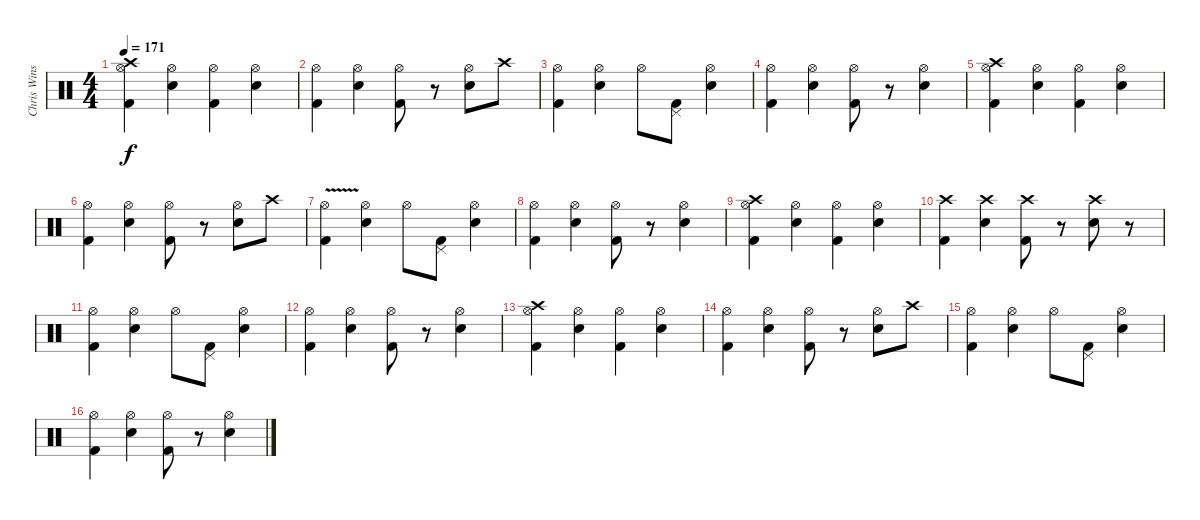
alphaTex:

\track ("Chris Winship (Drums)" "Chris Wins") {instrument percussion}
\staff {score}
\articulation defaults
\ts (4 4)
\tempo 171
\clef neutral
\ks c
("Crash high (hit)" "Hi-Hat (open)" "Kick (hit) 2").4{dy f} ("Hi-Hat (open)" "Snare (hit) 2").4 ("Hi-Hat (open)" "Kick (hit) 2").4 ("Hi-Hat (open)" "Snare (hit) 2").4 |
("Hi-Hat (open)" "Kick (hit) 2").4 ("Hi-Hat (open)" "Snare (hit) 2").4 ("Hi-Hat (open)" "Kick (hit) 2").8 r.8 ("Hi-Hat (open)" "Snare (hit) 2").8 "Crash high (hit)".8 |
("Hi-Hat (open)" "Kick (hit) 2").4 ("Hi-Hat (open)" "Snare (hit) 2").4 "Hi-Hat (open)".8 ("Pedal Hi-Hat (hit)" "Kick (hit) 2").8 ("Hi-Hat (open)" "Snare (hit) 2").4 |
("Hi-Hat (open)" "Kick (hit) 2").4 ("Hi-Hat (open)" "Snare (hit) 2").4 ("Hi-Hat (open)" "Kick (hit) 2").8 r.8 ("Hi-Hat (open)" "Snare (hit) 2").4 |
("Crash high (hit)" "Hi-Hat (open)" "Kick (hit) 2").4 ("Hi-Hat (open)" "Snare (hit) 2").4 ("Hi-Hat (open)" "Kick (hit) 2").4 ("Hi-Hat (open)" "Snare (hit) 2").4 |
("Hi-Hat (open)" "Kick (hit) 2").4 ("Hi-Hat (open)" "Snare (hit) 2").4 ("Hi-Hat (open)" "Kick (hit) 2").8 r.8 ("Hi-Hat (open)" "Snare (hit) 2").8 "Crash high (hit)".8 |
("Hi-Hat (open)"{v} "Kick (hit) 2").4 ("Hi-Hat (open)" "Snare (hit) 2").4 "Hi-Hat (open)".8 ("Pedal Hi-Hat (hit)" "Kick (hit) 2").8 ("Hi-Hat (open)" "Snare (hit) 2").4 |
("Hi-Hat (open)" "Kick (hit) 2").4 ("Hi-Hat (open)" "Snare (hit) 2").4 ("Hi-Hat (open)" "Kick (hit) 2").8 r.8 ("Hi-Hat (open)" "Snare (hit) 2").4 |
("Crash high (hit)" "Hi-Hat (open)" "Kick (hit) 2").4 ("Hi-Hat (open)" "Snare (hit) 2").4 ("Hi-Hat (open)" "Kick (hit) 2").4 ("Hi-Hat (open)" "Snare (hit) 2").4 |
("Crash high (hit)" "Kick (hit) 2").4 ("Crash high (hit)" "Snare (hit) 2").4 ("Crash high (hit)" "Kick (hit) 2").8 r.8 ("Crash high (hit)" "Snare (hit) 2").8 r.8 |
("Hi-Hat (open)" "Kick (hit) 2").4 ("Hi-Hat (open)" "Snare (hit) 2").4 "Hi-Hat (open)".8 ("Pedal Hi-Hat (hit)" "Kick (hit) 2").8 ("Hi-Hat (open)" "Snare (hit) 2").4 |
("Hi-Hat (open)" "Kick (hit) 2").4 ("Hi-Hat (open)" "Snare (hit) 2").4 ("Hi-Hat (open)" "Kick (hit) 2").8 r.8 ("Hi-Hat (open)" "Snare (hit) 2").4 |
("Crash high (hit)" "Hi-Hat (open)" "Kick (hit) 2").4 ("Hi-Hat (open)" "Snare (hit) 2").4 ("Hi-Hat (open)" "Kick (hit) 2").4 ("Hi-Hat (open)" "Snare (hit) 2").4 |
("Hi-Hat (open)" "Kick (hit) 2").4 ("Hi-Hat (open)" "Snare (hit) 2").4 ("Hi-Hat (open)" "Kick (hit) 2").8 r.8 ("Hi-Hat (open)" "Snare (hit) 2").8 "Crash high (hit)".8 |
("Hi-Hat (open)" "Kick (hit) 2").4 ("Hi-Hat (open)" "Snare (hit) 2").4 "Hi-Hat (open)".8 ("Pedal Hi-Hat (hit)" "Kick (hit) 2").8 ("Hi-Hat (open)" "Snare (hit) 2").4 |
("Hi-Hat (open)" "Kick (hit) 2").4 ("Hi-Hat (open)" "Snare (hit) 2").4 ("Hi-Hat (open)" "Kick (hit) 2").8 r.8 ("Hi-Hat (open)" "Snare (hit) 2").4
